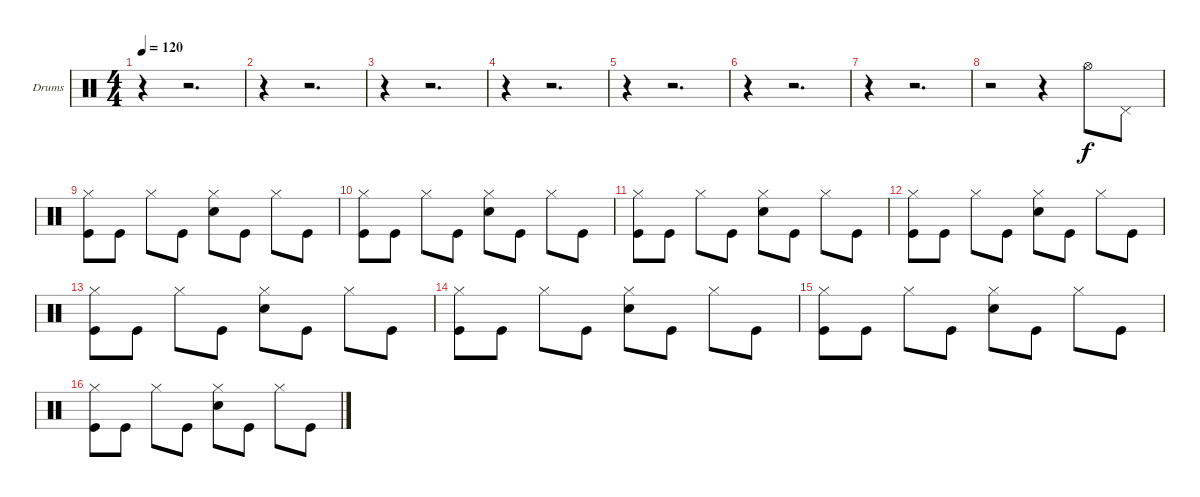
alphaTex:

\bracketExtendMode groupsimilarinstruments
\firstSystemTrackNameOrientation horizontal
\otherSystemsTrackNameOrientation horizontal
\track ("Drumkit" "Drums") {instrument percussion}
\staff {score}
\articulation defaults
\ts (4 4)
\beaming (8 2 2 2 2)
\tempo 120
\clef neutral
\ks c
r.4{dy f} r.2{d} |
r.4 r.2{d} |
r.4 r.2{d} |
r.4 r.2{d} |
r.4 r.2{d} |
r.4 r.2{d} |
r.4 r.2{d} |
r.2 r.4 "Hi-Hat (open)".8 "Pedal Hi-Hat (hit)".8 |
("Hi-Hat (closed)" "Kick (hit)").8 "Kick (hit)".8 "Hi-Hat (closed)".8 "Kick (hit)".8 ("Hi-Hat (closed)" "Snare (hit) 2").8 "Kick (hit)".8 "Hi-Hat (closed)".8 "Kick (hit)".8 |
("Hi-Hat (closed)" "Kick (hit)").8 "Kick (hit)".8 "Hi-Hat (closed)".8 "Kick (hit)".8 ("Hi-Hat (closed)" "Snare (hit) 2").8 "Kick (hit)".8 "Hi-Hat (closed)".8 "Kick (hit)".8 |
("Hi-Hat (closed)" "Kick (hit)").8 "Kick (hit)".8 "Hi-Hat (closed)".8 "Kick (hit)".8 ("Hi-Hat (closed)" "Snare (hit) 2").8 "Kick (hit)".8 "Hi-Hat (closed)".8 "Kick (hit)".8 |
("Hi-Hat (closed)" "Kick (hit)").8 "Kick (hit)".8 "Hi-Hat (closed)".8 "Kick (hit)".8 ("Hi-Hat (closed)" "Snare (hit) 2").8 "Kick (hit)".8 "Hi-Hat (closed)".8 "Kick (hit)".8 |
("Hi-Hat (closed)" "Kick (hit)").8 "Kick (hit)".8 "Hi-Hat (closed)".8 "Kick (hit)".8 ("Hi-Hat (closed)" "Snare (hit) 2").8 "Kick (hit)".8 "Hi-Hat (closed)".8 "Kick (hit)".8 |
("Hi-Hat (closed)" "Kick (hit)").8 "Kick (hit)".8 "Hi-Hat (closed)".8 "Kick (hit)".8 ("Hi-Hat (closed)" "Snare (hit) 2").8 "Kick (hit)".8 "Hi-Hat (closed)".8 "Kick (hit)".8 |
("Hi-Hat (closed)" "Kick (hit)").8 "Kick (hit)".8 "Hi-Hat (closed)".8 "Kick (hit)".8 ("Hi-Hat (closed)" "Snare (hit) 2").8 "Kick (hit)".8 "Hi-Hat (closed)".8 "Kick (hit)".8 |
("Hi-Hat (closed)" "Kick (hit)").8 "Kick (hit)".8 "Hi-Hat (closed)".8 "Kick (hit)".8 ("Hi-Hat (closed)" "Snare (hit) 2").8 "Kick (hit)".8 "Hi-Hat (closed)".8 "Kick (hit)".8
